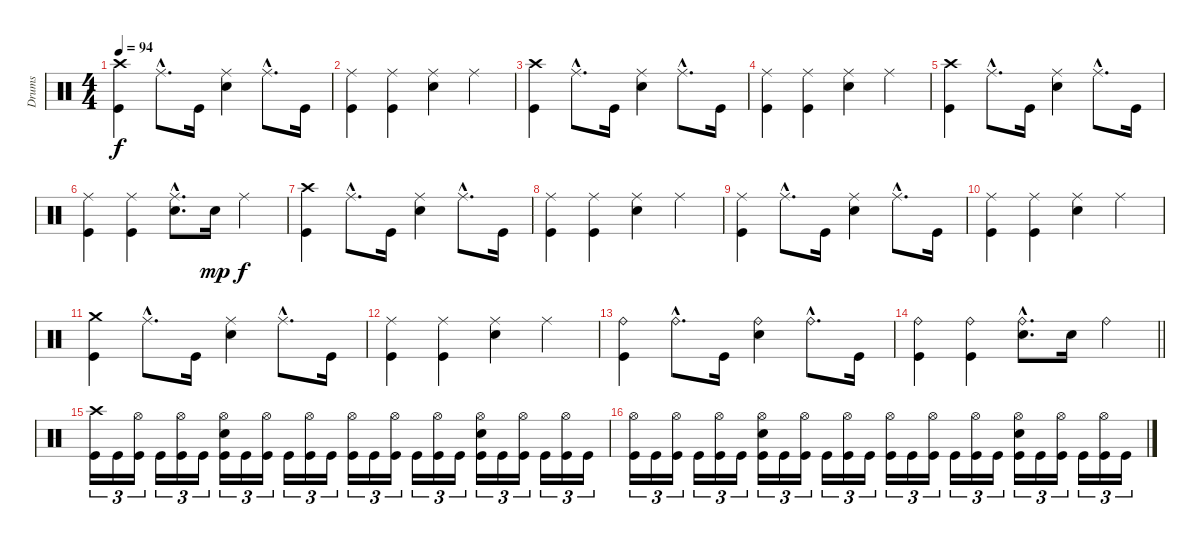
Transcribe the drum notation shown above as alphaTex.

\track ("Drums" "Drums") {instrument percussion}
\staff {score}
\articulation defaults
\ts (4 4)
\tempo 94
\clef neutral
\ks c
("Crash high (hit)" "Kick (hit)").4{dy f} "Ride (middle)"{hac}.8{d} "Kick (hit)".16 ("Ride (middle)" "Snare (hit) 2").4 "Ride (middle)"{hac}.8{d} "Kick (hit)".16 |
("Ride (middle)" "Kick (hit)").4 ("Ride (middle)" "Kick (hit)").4 ("Ride (middle)" "Snare (hit) 2").4 "Ride (middle)".4 |
("Crash high (hit)" "Kick (hit)").4 "Ride (middle)"{hac}.8{d} "Kick (hit)".16 ("Ride (middle)" "Snare (hit) 2").4 "Ride (middle)"{hac}.8{d} "Kick (hit)".16 |
("Ride (middle)" "Kick (hit)").4 ("Ride (middle)" "Kick (hit)").4 ("Ride (middle)" "Snare (hit) 2").4 "Ride (middle)".4 |
("Crash high (hit)" "Kick (hit)").4 "Ride (middle)"{hac}.8{d} "Kick (hit)".16 ("Ride (middle)" "Snare (hit) 2").4 "Ride (middle)"{hac}.8{d} "Kick (hit)".16 |
("Ride (middle)" "Kick (hit)").4 ("Ride (middle)" "Kick (hit)").4 ("Ride (middle)"{hac} "Snare (hit) 2"{hac}).8{d} "Snare (hit) 2".16{dy mp} "Ride (middle)".4{dy f} |
("Crash high (hit)" "Kick (hit)").4 "Ride (middle)"{hac}.8{d} "Kick (hit)".16 ("Ride (middle)" "Snare (hit) 2").4 "Ride (middle)"{hac}.8{d} "Kick (hit)".16 |
("Ride (middle)" "Kick (hit)").4 ("Ride (middle)" "Kick (hit)").4 ("Ride (middle)" "Snare (hit) 2").4 "Ride (middle)".4 |
("Ride (middle)" "Kick (hit)").4 "Ride (middle)"{hac}.8{d} "Kick (hit)".16 ("Ride (middle)" "Snare (hit) 2").4 "Ride (middle)"{hac}.8{d} "Kick (hit)".16 |
("Ride (middle)" "Kick (hit)").4 ("Ride (middle)" "Kick (hit)").4 ("Ride (middle)" "Snare (hit) 2").4 "Ride (middle)".4 |
("Crash medium (hit)" "Kick (hit)").4 "Ride (middle)"{hac}.8{d} "Kick (hit)".16 ("Ride (middle)" "Snare (hit) 2").4 "Ride (middle)"{hac}.8{d} "Kick (hit)".16 |
("Ride (middle)" "Kick (hit)").4 ("Ride (middle)" "Kick (hit)").4 ("Ride (middle)" "Snare (hit) 2").4 "Ride (middle)".4 |
("Ride (bell)" "Kick (hit)").4 "Ride (bell)"{hac}.8{d} "Kick (hit)".16 ("Ride (bell)" "Snare (hit) 2").4 "Ride (bell)"{hac}.8{d} "Kick (hit)".16 |
\barLineRight lightlight
("Ride (bell)" "Kick (hit)").4 ("Ride (bell)" "Kick (hit)").4 ("Ride (bell)"{hac} "Snare (hit) 2"{hac}).8{d} "Snare (hit) 2".16 "Ride (bell)".4 |
("Crash high (hit)" "Kick (hit)").16{tu (3 2)} "Kick (hit)".16{tu (3 2)} ("Hi-Hat (open)" "Kick (hit)").16{tu (3 2)} "Kick (hit)".16{tu (3 2)} ("Hi-Hat (open)" "Kick (hit)").16{tu (3 2)} "Kick (hit)".16{tu (3 2)} ("Hi-Hat (open)" "Snare (hit) 2" "Kick (hit)").16{tu (3 2)} "Kick (hit)".16{tu (3 2)} ("Hi-Hat (open)" "Kick (hit)").16{tu (3 2)} "Kick (hit)".16{tu (3 2)} ("Hi-Hat (open)" "Kick (hit)").16{tu (3 2)} "Kick (hit)".16{tu (3 2)} ("Hi-Hat (open)" "Kick (hit)").16{tu (3 2)} "Kick (hit)".16{tu (3 2)} ("Hi-Hat (open)" "Kick (hit)").16{tu (3 2)} "Kick (hit)".16{tu (3 2)} ("Hi-Hat (open)" "Kick (hit)").16{tu (3 2)} "Kick (hit)".16{tu (3 2)} ("Hi-Hat (open)" "Snare (hit) 2" "Kick (hit)").16{tu (3 2)} "Kick (hit)".16{tu (3 2)} ("Hi-Hat (open)" "Kick (hit)").16{tu (3 2)} "Kick (hit)".16{tu (3 2)} ("Hi-Hat (open)" "Kick (hit)").16{tu (3 2)} "Kick (hit)".16{tu (3 2)} |
("Hi-Hat (open)" "Kick (hit)").16{tu (3 2)} "Kick (hit)".16{tu (3 2)} ("Hi-Hat (open)" "Kick (hit)").16{tu (3 2)} "Kick (hit)".16{tu (3 2)} ("Hi-Hat (open)" "Kick (hit)").16{tu (3 2)} "Kick (hit)".16{tu (3 2)} ("Hi-Hat (open)" "Snare (hit) 2" "Kick (hit)").16{tu (3 2)} "Kick (hit)".16{tu (3 2)} ("Hi-Hat (open)" "Kick (hit)").16{tu (3 2)} "Kick (hit)".16{tu (3 2)} ("Hi-Hat (open)" "Kick (hit)").16{tu (3 2)} "Kick (hit)".16{tu (3 2)} ("Hi-Hat (open)" "Kick (hit)").16{tu (3 2)} "Kick (hit)".16{tu (3 2)} ("Hi-Hat (open)" "Kick (hit)").16{tu (3 2)} "Kick (hit)".16{tu (3 2)} ("Hi-Hat (open)" "Kick (hit)").16{tu (3 2)} "Kick (hit)".16{tu (3 2)} ("Hi-Hat (open)" "Snare (hit) 2" "Kick (hit)").16{tu (3 2)} "Kick (hit)".16{tu (3 2)} ("Hi-Hat (open)" "Kick (hit)").16{tu (3 2)} "Kick (hit)".16{tu (3 2)} ("Hi-Hat (open)" "Kick (hit)").16{tu (3 2)} "Kick (hit)".16{tu (3 2)}
